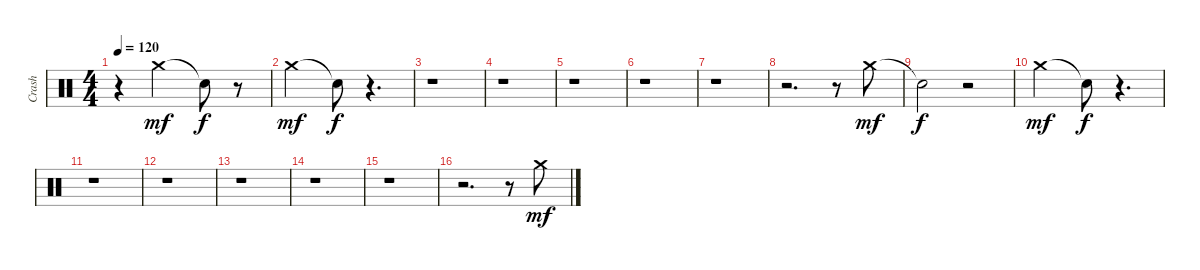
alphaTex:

\track ("Crash" "Crash") {instrument percussion}
\staff {score}
\articulation defaults
\ts (4 4)
\tempo 120
\clef neutral
\ks c
r.4{dy f} "Crash medium (hit)".2{dy mf} "Snare (hit)"{t}.8{dy f} r.8 |
"Crash medium (hit)".2{dy mf} "Snare (hit)"{t}.8{dy f} r.4{d} |
r.1 |
r.1 |
r.1 |
r.1 |
r.1 |
r.2{d} r.8 "Crash medium (hit)".8{dy mf} |
"Snare (hit)"{t}.2{dy f} r.2 |
"Crash medium (hit)".2{dy mf} "Snare (hit)"{t}.8{dy f} r.4{d} |
r.1 |
r.1 |
r.1 |
r.1 |
r.1 |
r.2{d} r.8 "Crash medium (hit)".8{dy mf}
